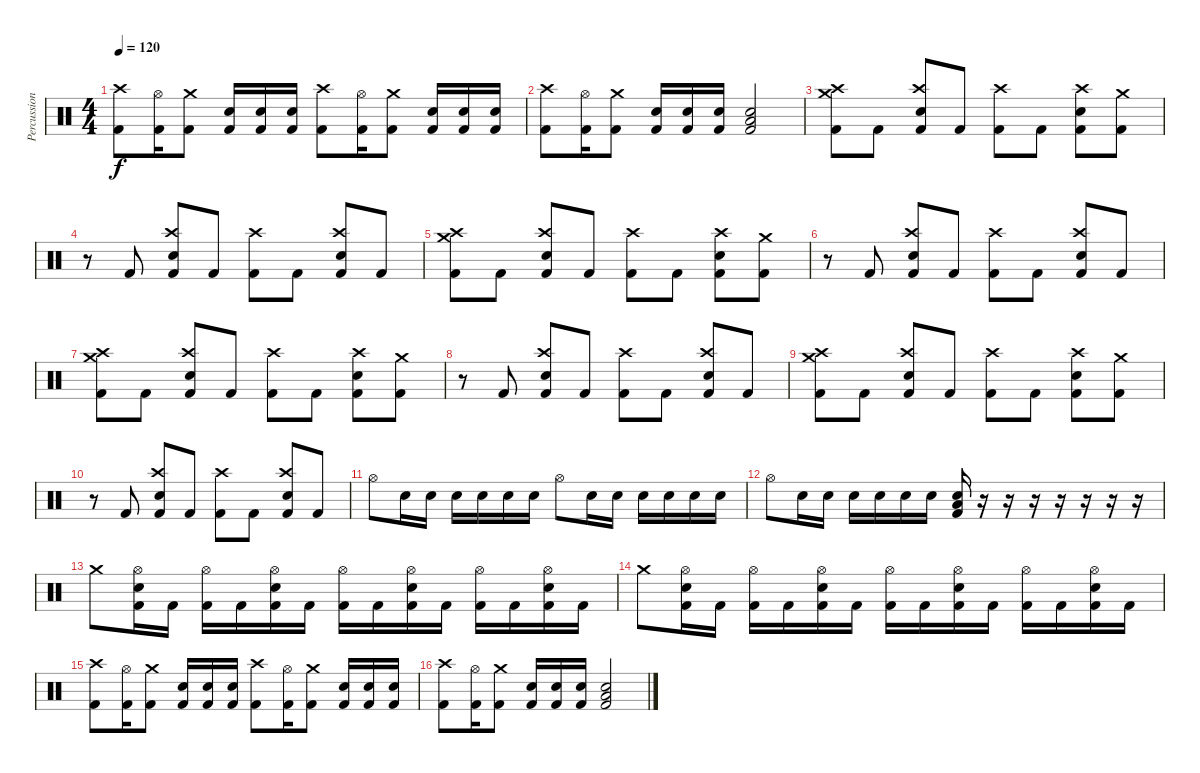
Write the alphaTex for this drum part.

\track ("Percussion" "Percussion") {instrument percussion}
\staff {score}
\articulation defaults
\ts (4 4)
\tempo 120
\clef neutral
\ks c
("Kick (hit) 2" "Crash high (hit)").8{dy f} ("Kick (hit) 2" "Hi-Hat (open)").16 ("Kick (hit) 2" "Crash medium (hit)").8 ("Kick (hit) 2" "Electric Snare (hit)").16 ("Kick (hit) 2" "Electric Snare (hit)").16 ("Kick (hit) 2" "Electric Snare (hit)").16 ("Kick (hit) 2" "Crash high (hit)").8 ("Kick (hit) 2" "Hi-Hat (open)").16 ("Kick (hit) 2" "Crash medium (hit)").8 ("Kick (hit) 2" "Electric Snare (hit)").16 ("Kick (hit) 2" "Electric Snare (hit)").16 ("Kick (hit) 2" "Electric Snare (hit)").16 |
("Kick (hit) 2" "Crash high (hit)").8 ("Kick (hit) 2" "Hi-Hat (open)").16 ("Kick (hit) 2" "Crash medium (hit)").8 ("Kick (hit) 2" "Electric Snare (hit)").16 ("Kick (hit) 2" "Electric Snare (hit)").16 ("Kick (hit) 2" "Electric Snare (hit)").16 ("Low Floor Tom (hit)" "Kick (hit) 2" "Electric Snare (hit)").2 |
("Crash medium (hit)" "Crash high (hit)" "Kick (hit) 2").8 "Kick (hit) 2".8 ("Crash high (hit)" "Snare (hit) 2" "Kick (hit) 2").8 "Kick (hit) 2".8 ("Crash high (hit)" "Kick (hit) 2").8 "Kick (hit) 2".8 ("Crash high (hit)" "Snare (hit) 2" "Kick (hit) 2").8 ("Crash medium (hit)" "Kick (hit) 2").8 |
r.8 "Kick (hit) 2".8 ("Crash high (hit)" "Kick (hit) 2" "Snare (hit) 2").8 "Kick (hit) 2".8 ("Crash high (hit)" "Kick (hit) 2").8 "Kick (hit) 2".8 ("Crash high (hit)" "Kick (hit) 2" "Snare (hit) 2").8 "Kick (hit) 2".8 |
("Crash medium (hit)" "Crash high (hit)" "Kick (hit) 2").8 "Kick (hit) 2".8 ("Crash high (hit)" "Snare (hit) 2" "Kick (hit) 2").8 "Kick (hit) 2".8 ("Crash high (hit)" "Kick (hit) 2").8 "Kick (hit) 2".8 ("Crash high (hit)" "Snare (hit) 2" "Kick (hit) 2").8 ("Crash medium (hit)" "Kick (hit) 2").8 |
r.8 "Kick (hit) 2".8 ("Crash high (hit)" "Kick (hit) 2" "Snare (hit) 2").8 "Kick (hit) 2".8 ("Crash high (hit)" "Kick (hit) 2").8 "Kick (hit) 2".8 ("Crash high (hit)" "Kick (hit) 2" "Snare (hit) 2").8 "Kick (hit) 2".8 |
("Crash medium (hit)" "Crash high (hit)" "Kick (hit) 2").8 "Kick (hit) 2".8 ("Crash high (hit)" "Snare (hit) 2" "Kick (hit) 2").8 "Kick (hit) 2".8 ("Crash high (hit)" "Kick (hit) 2").8 "Kick (hit) 2".8 ("Crash high (hit)" "Snare (hit) 2" "Kick (hit) 2").8 ("Crash medium (hit)" "Kick (hit) 2").8 |
r.8 "Kick (hit) 2".8 ("Crash high (hit)" "Kick (hit) 2" "Snare (hit) 2").8 "Kick (hit) 2".8 ("Crash high (hit)" "Kick (hit) 2").8 "Kick (hit) 2".8 ("Crash high (hit)" "Kick (hit) 2" "Snare (hit) 2").8 "Kick (hit) 2".8 |
("Crash medium (hit)" "Crash high (hit)" "Kick (hit) 2").8 "Kick (hit) 2".8 ("Crash high (hit)" "Snare (hit) 2" "Kick (hit) 2").8 "Kick (hit) 2".8 ("Crash high (hit)" "Kick (hit) 2").8 "Kick (hit) 2".8 ("Crash high (hit)" "Snare (hit) 2" "Kick (hit) 2").8 ("Crash medium (hit)" "Kick (hit) 2").8 |
r.8 "Kick (hit) 2".8 ("Crash high (hit)" "Kick (hit) 2" "Snare (hit) 2").8 "Kick (hit) 2".8 ("Crash high (hit)" "Kick (hit) 2").8 "Kick (hit) 2".8 ("Crash high (hit)" "Kick (hit) 2" "Snare (hit) 2").8 "Kick (hit) 2".8 |
"Hi-Hat (open)".8 "Electric Snare (hit)".16 "Electric Snare (hit)".16 "Electric Snare (hit)".16 "Electric Snare (hit)".16 "Electric Snare (hit)".16 "Electric Snare (hit)".16 "Hi-Hat (open)".8 "Electric Snare (hit)".16 "Electric Snare (hit)".16 "Electric Snare (hit)".16 "Electric Snare (hit)".16 "Electric Snare (hit)".16 "Electric Snare (hit)".16 |
"Hi-Hat (open)".8 "Electric Snare (hit)".16 "Electric Snare (hit)".16 "Electric Snare (hit)".16 "Electric Snare (hit)".16 "Electric Snare (hit)".16 "Electric Snare (hit)".16 ("Low Floor Tom (hit)" "Electric Snare (hit)" "Kick (hit) 2").16 r.16 r.16 r.16 r.16 r.16 r.16 r.16 |
"Crash medium (hit)".8 ("Snare (hit) 2" "Hi-Hat (open)" "Kick (hit) 2").16 "Kick (hit) 2".16 ("Hi-Hat (open)" "Kick (hit) 2").16 "Kick (hit) 2".16 ("Snare (hit) 2" "Hi-Hat (open)" "Kick (hit) 2").16 "Kick (hit) 2".16 ("Hi-Hat (open)" "Kick (hit) 2").16 "Kick (hit) 2".16 ("Snare (hit) 2" "Hi-Hat (open)" "Kick (hit) 2").16 "Kick (hit) 2".16 ("Hi-Hat (open)" "Kick (hit) 2").16 "Kick (hit) 2".16 ("Snare (hit) 2" "Hi-Hat (open)" "Kick (hit) 2").16 "Kick (hit) 2".16 |
"Crash medium (hit)".8 ("Snare (hit) 2" "Hi-Hat (open)" "Kick (hit) 2").16 "Kick (hit) 2".16 ("Hi-Hat (open)" "Kick (hit) 2").16 "Kick (hit) 2".16 ("Snare (hit) 2" "Hi-Hat (open)" "Kick (hit) 2").16 "Kick (hit) 2".16 ("Hi-Hat (open)" "Kick (hit) 2").16 "Kick (hit) 2".16 ("Snare (hit) 2" "Hi-Hat (open)" "Kick (hit) 2").16 "Kick (hit) 2".16 ("Hi-Hat (open)" "Kick (hit) 2").16 "Kick (hit) 2".16 ("Snare (hit) 2" "Hi-Hat (open)" "Kick (hit) 2").16 "Kick (hit) 2".16 |
("Kick (hit) 2" "Crash high (hit)").8 ("Kick (hit) 2" "Hi-Hat (open)").16 ("Kick (hit) 2" "Crash medium (hit)").8 ("Kick (hit) 2" "Electric Snare (hit)").16 ("Kick (hit) 2" "Electric Snare (hit)").16 ("Kick (hit) 2" "Electric Snare (hit)").16 ("Kick (hit) 2" "Crash high (hit)").8 ("Kick (hit) 2" "Hi-Hat (open)").16 ("Kick (hit) 2" "Crash medium (hit)").8 ("Kick (hit) 2" "Electric Snare (hit)").16 ("Kick (hit) 2" "Electric Snare (hit)").16 ("Kick (hit) 2" "Electric Snare (hit)").16 |
("Kick (hit) 2" "Crash high (hit)").8 ("Kick (hit) 2" "Hi-Hat (open)").16 ("Kick (hit) 2" "Crash medium (hit)").8 ("Kick (hit) 2" "Electric Snare (hit)").16 ("Kick (hit) 2" "Electric Snare (hit)").16 ("Kick (hit) 2" "Electric Snare (hit)").16 ("Low Floor Tom (hit)" "Kick (hit) 2" "Electric Snare (hit)").2
